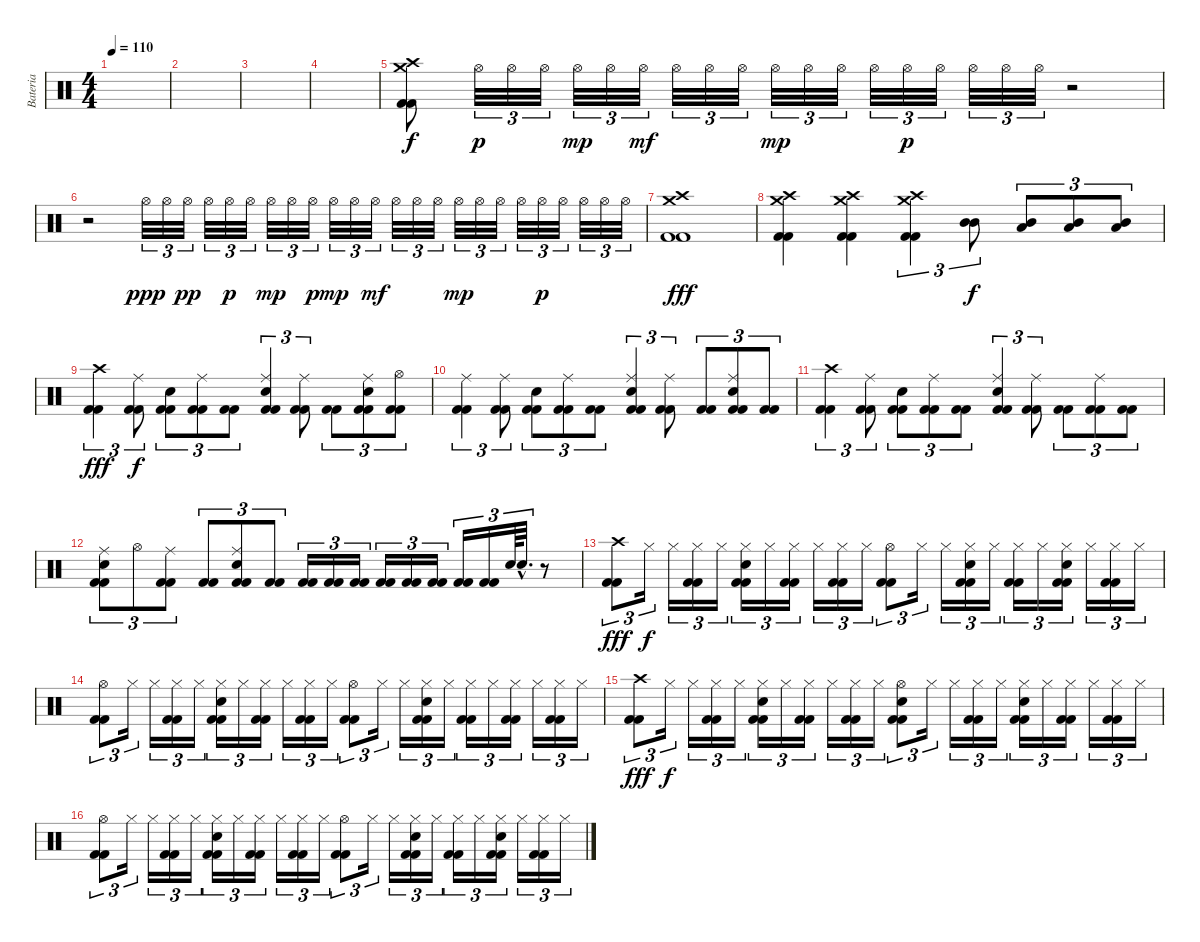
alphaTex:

\track ("Bateria" "Bateria") {instrument percussion}
\staff {score}
\articulation defaults
\ts (4 4)
\tempo 110
\clef neutral
\ks c
|
|
|
|
("Crash high (hit)" "Crash medium (hit)" "Kick (hit) 2" "Kick (hit) 2").8 "Hi-Hat (open)".32{tu (3 2) dy p} "Hi-Hat (open)".32{tu (3 2)} "Hi-Hat (open)".32{tu (3 2)} "Hi-Hat (open)".32{tu (3 2) dy mp} "Hi-Hat (open)".32{tu (3 2)} "Hi-Hat (open)".32{tu (3 2) dy mf} "Hi-Hat (open)".32{tu (3 2)} "Hi-Hat (open)".32{tu (3 2)} "Hi-Hat (open)".32{tu (3 2)} "Hi-Hat (open)".32{tu (3 2) dy mp} "Hi-Hat (open)".32{tu (3 2)} "Hi-Hat (open)".32{tu (3 2)} "Hi-Hat (open)".32{tu (3 2)} "Hi-Hat (open)".32{tu (3 2) dy p} "Hi-Hat (open)".32{tu (3 2)} "Hi-Hat (open)".32{tu (3 2)} "Hi-Hat (open)".32{tu (3 2)} "Hi-Hat (open)".32{tu (3 2)} r.2 |
r.2 "Hi-Hat (open)".32{tu (3 2) dy ppp} "Hi-Hat (open)".32{tu (3 2)} "Hi-Hat (open)".32{tu (3 2) dy pp} "Hi-Hat (open)".32{tu (3 2)} "Hi-Hat (open)".32{tu (3 2) dy p} "Hi-Hat (open)".32{tu (3 2)} "Hi-Hat (open)".32{tu (3 2) dy mp} "Hi-Hat (open)".32{tu (3 2)} "Hi-Hat (open)".32{tu (3 2) dy p} "Hi-Hat (open)".32{tu (3 2) dy mp} "Hi-Hat (open)".32{tu (3 2)} "Hi-Hat (open)".32{tu (3 2) dy mf} "Hi-Hat (open)".32{tu (3 2)} "Hi-Hat (open)".32{tu (3 2)} "Hi-Hat (open)".32{tu (3 2)} "Hi-Hat (open)".32{tu (3 2) dy mp} "Hi-Hat (open)".32{tu (3 2)} "Hi-Hat (open)".32{tu (3 2)} "Hi-Hat (open)".32{tu (3 2)} "Hi-Hat (open)".32{tu (3 2) dy p} "Hi-Hat (open)".32{tu (3 2)} "Hi-Hat (open)".32{tu (3 2)} "Hi-Hat (open)".32{tu (3 2)} "Hi-Hat (open)".32{tu (3 2)} |
("Crash high (hit)" "Crash medium (hit)" "Kick (hit) 2" "Kick (hit) 2").1{dy fff} |
("Crash high (hit)" "Crash medium (hit)" "Kick (hit) 2" "Kick (hit) 2").4 ("Crash high (hit)" "Crash medium (hit)" "Kick (hit) 2" "Kick (hit) 2").4 ("Crash high (hit)" "Crash medium (hit)" "Kick (hit) 2" "Kick (hit) 2").4{tu (3 2)} ("Mid Tom (hit)" "Mid Tom (hit)").8{tu (3 2) dy f} ("Low Tom (hit)" "Mid Tom (hit)").8{tu (3 2)} ("Low Tom (hit)" "Mid Tom (hit)").8{tu (3 2)} ("Low Tom (hit)" "Mid Tom (hit)").8{tu (3 2)} |
("Crash high (hit)" "Kick (hit) 2" "Kick (hit) 2").4{tu (3 2) dy fff} ("Ride (middle)" "Kick (hit) 2" "Kick (hit) 2").8{tu (3 2) dy f} ("Electric Snare (hit)" "Kick (hit) 2" "Kick (hit) 2").8{tu (3 2)} ("Ride (middle)" "Kick (hit) 2" "Kick (hit) 2").8{tu (3 2)} ("Kick (hit) 2" "Kick (hit) 2").8{tu (3 2)} ("Ride (middle)" "Electric Snare (hit)" "Kick (hit) 2" "Kick (hit) 2").4{tu (3 2)} ("Ride (middle)" "Kick (hit) 2" "Kick (hit) 2").8{tu (3 2)} ("Kick (hit) 2" "Kick (hit) 2").8{tu (3 2)} ("Ride (middle)" "Electric Snare (hit)" "Kick (hit) 2" "Kick (hit) 2").8{tu (3 2)} ("Hi-Hat (open)" "Kick (hit) 2" "Kick (hit) 2").8{tu (3 2)} |
("Ride (middle)" "Kick (hit) 2" "Kick (hit) 2").4{tu (3 2)} ("Ride (middle)" "Kick (hit) 2" "Kick (hit) 2").8{tu (3 2)} ("Electric Snare (hit)" "Kick (hit) 2" "Kick (hit) 2").8{tu (3 2)} ("Ride (middle)" "Kick (hit) 2" "Kick (hit) 2").8{tu (3 2)} ("Kick (hit) 2" "Kick (hit) 2").8{tu (3 2)} ("Ride (middle)" "Electric Snare (hit)" "Kick (hit) 2" "Kick (hit) 2").4{tu (3 2)} ("Ride (middle)" "Kick (hit) 2" "Kick (hit) 2").8{tu (3 2)} ("Kick (hit) 2" "Kick (hit) 2").8{tu (3 2)} ("Ride (middle)" "Electric Snare (hit)" "Kick (hit) 2" "Kick (hit) 2").8{tu (3 2)} ("Kick (hit) 2" "Kick (hit) 2").8{tu (3 2)} |
("Crash high (hit)" "Kick (hit) 2" "Kick (hit) 2").4{tu (3 2)} ("Ride (middle)" "Kick (hit) 2" "Kick (hit) 2").8{tu (3 2)} ("Electric Snare (hit)" "Kick (hit) 2" "Kick (hit) 2").8{tu (3 2)} ("Ride (middle)" "Kick (hit) 2" "Kick (hit) 2").8{tu (3 2)} ("Kick (hit) 2" "Kick (hit) 2").8{tu (3 2)} ("Ride (middle)" "Electric Snare (hit)" "Kick (hit) 2" "Kick (hit) 2").4{tu (3 2)} ("Ride (middle)" "Kick (hit) 2" "Kick (hit) 2").8{tu (3 2)} ("Kick (hit) 2" "Kick (hit) 2").8{tu (3 2)} ("Ride (middle)" "Kick (hit) 2" "Kick (hit) 2").8{tu (3 2)} ("Kick (hit) 2" "Kick (hit) 2").8{tu (3 2)} |
("Ride (middle)" "Electric Snare (hit)" "Kick (hit) 2" "Kick (hit) 2").8{tu (3 2)} "Hi-Hat (open)".8{tu (3 2)} ("Ride (middle)" "Kick (hit) 2" "Kick (hit) 2").8{tu (3 2)} ("Kick (hit) 2" "Kick (hit) 2").8{tu (3 2)} ("Ride (middle)" "Electric Snare (hit)" "Kick (hit) 2" "Kick (hit) 2").8{tu (3 2)} ("Kick (hit) 2" "Kick (hit) 2").8{tu (3 2)} ("Kick (hit) 2" "Kick (hit) 2").16{tu (3 2)} ("Kick (hit) 2" "Kick (hit) 2").16{tu (3 2)} ("Kick (hit) 2" "Kick (hit) 2").16{tu (3 2)} ("Kick (hit) 2" "Kick (hit) 2").16{tu (3 2)} ("Kick (hit) 2" "Kick (hit) 2").16{tu (3 2)} ("Kick (hit) 2" "Kick (hit) 2").16{tu (3 2)} ("Kick (hit) 2" "Kick (hit) 2").16{tu (3 2)} ("Kick (hit) 2" "Kick (hit) 2").16{tu (3 2)} "Electric Snare (hit)".64{tu (3 2)} "Electric Snare (hit)"{hac}.32{d tu (3 2)} r.8 |
("Crash high (hit)" "Kick (hit) 2" "Kick (hit) 2").8{tu (3 2) dy fff} "Hi-Hat (closed)".16{tu (3 2) dy f} "Hi-Hat (closed)".16{tu (3 2)} ("Hi-Hat (closed)" "Kick (hit) 2" "Kick (hit) 2").16{tu (3 2)} "Hi-Hat (closed)".16{tu (3 2)} ("Hi-Hat (closed)" "Electric Snare (hit)" "Kick (hit) 2" "Kick (hit) 2").16{tu (3 2)} "Hi-Hat (closed)".16{tu (3 2)} ("Hi-Hat (closed)" "Kick (hit) 2" "Kick (hit) 2").16{tu (3 2)} "Hi-Hat (closed)".16{tu (3 2)} ("Hi-Hat (closed)" "Kick (hit) 2" "Kick (hit) 2").16{tu (3 2)} "Hi-Hat (closed)".16{tu (3 2)} ("Hi-Hat (open)" "Kick (hit) 2" "Kick (hit) 2").8{tu (3 2)} "Hi-Hat (closed)".16{tu (3 2)} "Hi-Hat (closed)".16{tu (3 2)} ("Hi-Hat (closed)" "Electric Snare (hit)" "Kick (hit) 2" "Kick (hit) 2").16{tu (3 2)} "Hi-Hat (closed)".16{tu (3 2)} ("Hi-Hat (closed)" "Kick (hit) 2" "Kick (hit) 2").16{tu (3 2)} "Hi-Hat (closed)".16{tu (3 2)} ("Hi-Hat (closed)" "Electric Snare (hit)" "Kick (hit) 2" "Kick (hit) 2").16{tu (3 2)} "Hi-Hat (closed)".16{tu (3 2)} ("Hi-Hat (closed)" "Kick (hit) 2" "Kick (hit) 2").16{tu (3 2)} "Hi-Hat (closed)".16{tu (3 2)} |
("Hi-Hat (open)" "Kick (hit) 2" "Kick (hit) 2").8{tu (3 2)} "Hi-Hat (closed)".16{tu (3 2)} "Hi-Hat (closed)".16{tu (3 2)} ("Hi-Hat (closed)" "Kick (hit) 2" "Kick (hit) 2").16{tu (3 2)} "Hi-Hat (closed)".16{tu (3 2)} ("Hi-Hat (closed)" "Electric Snare (hit)" "Kick (hit) 2" "Kick (hit) 2").16{tu (3 2)} "Hi-Hat (closed)".16{tu (3 2)} ("Hi-Hat (closed)" "Kick (hit) 2" "Kick (hit) 2").16{tu (3 2)} "Hi-Hat (closed)".16{tu (3 2)} ("Hi-Hat (closed)" "Kick (hit) 2" "Kick (hit) 2").16{tu (3 2)} "Hi-Hat (closed)".16{tu (3 2)} ("Hi-Hat (open)" "Kick (hit) 2" "Kick (hit) 2").8{tu (3 2)} "Hi-Hat (closed)".16{tu (3 2)} "Hi-Hat (closed)".16{tu (3 2)} ("Hi-Hat (closed)" "Electric Snare (hit)" "Kick (hit) 2" "Kick (hit) 2").16{tu (3 2)} "Hi-Hat (closed)".16{tu (3 2)} ("Hi-Hat (closed)" "Kick (hit) 2" "Kick (hit) 2").16{tu (3 2)} "Hi-Hat (closed)".16{tu (3 2)} ("Hi-Hat (closed)" "Kick (hit) 2" "Kick (hit) 2").16{tu (3 2)} "Hi-Hat (closed)".16{tu (3 2)} ("Hi-Hat (closed)" "Kick (hit) 2" "Kick (hit) 2").16{tu (3 2)} "Hi-Hat (closed)".16{tu (3 2)} |
("Crash high (hit)" "Kick (hit) 2" "Kick (hit) 2").8{tu (3 2) dy fff} "Hi-Hat (closed)".16{tu (3 2) dy f} "Hi-Hat (closed)".16{tu (3 2)} ("Hi-Hat (closed)" "Kick (hit) 2" "Kick (hit) 2").16{tu (3 2)} "Hi-Hat (closed)".16{tu (3 2)} ("Hi-Hat (closed)" "Electric Snare (hit)" "Kick (hit) 2" "Kick (hit) 2").16{tu (3 2)} "Hi-Hat (closed)".16{tu (3 2)} ("Hi-Hat (closed)" "Kick (hit) 2" "Kick (hit) 2").16{tu (3 2)} "Hi-Hat (closed)".16{tu (3 2)} ("Hi-Hat (closed)" "Kick (hit) 2" "Kick (hit) 2").16{tu (3 2)} "Hi-Hat (closed)".16{tu (3 2)} ("Hi-Hat (open)" "Electric Snare (hit)" "Kick (hit) 2" "Kick (hit) 2").8{tu (3 2)} "Hi-Hat (closed)".16{tu (3 2)} "Hi-Hat (closed)".16{tu (3 2)} ("Hi-Hat (closed)" "Kick (hit) 2" "Kick (hit) 2").16{tu (3 2)} "Hi-Hat (closed)".16{tu (3 2)} ("Hi-Hat (closed)" "Electric Snare (hit)" "Kick (hit) 2" "Kick (hit) 2").16{tu (3 2)} "Hi-Hat (closed)".16{tu (3 2)} ("Hi-Hat (closed)" "Kick (hit) 2" "Kick (hit) 2").16{tu (3 2)} "Hi-Hat (closed)".16{tu (3 2)} ("Hi-Hat (closed)" "Kick (hit) 2" "Kick (hit) 2").16{tu (3 2)} "Hi-Hat (closed)".16{tu (3 2)} |
("Hi-Hat (open)" "Kick (hit) 2" "Kick (hit) 2").8{tu (3 2)} "Hi-Hat (closed)".16{tu (3 2)} "Hi-Hat (closed)".16{tu (3 2)} ("Hi-Hat (closed)" "Kick (hit) 2" "Kick (hit) 2").16{tu (3 2)} "Hi-Hat (closed)".16{tu (3 2)} ("Hi-Hat (closed)" "Electric Snare (hit)" "Kick (hit) 2" "Kick (hit) 2").16{tu (3 2)} "Hi-Hat (closed)".16{tu (3 2)} ("Hi-Hat (closed)" "Kick (hit) 2" "Kick (hit) 2").16{tu (3 2)} "Hi-Hat (closed)".16{tu (3 2)} ("Hi-Hat (closed)" "Kick (hit) 2" "Kick (hit) 2").16{tu (3 2)} "Hi-Hat (closed)".16{tu (3 2)} ("Hi-Hat (open)" "Kick (hit) 2" "Kick (hit) 2").8{tu (3 2)} "Hi-Hat (closed)".16{tu (3 2)} "Hi-Hat (closed)".16{tu (3 2)} ("Hi-Hat (closed)" "Electric Snare (hit)" "Kick (hit) 2" "Kick (hit) 2").16{tu (3 2)} "Hi-Hat (closed)".16{tu (3 2)} ("Hi-Hat (closed)" "Kick (hit) 2" "Kick (hit) 2").16{tu (3 2)} "Hi-Hat (closed)".16{tu (3 2)} ("Hi-Hat (closed)" "Electric Snare (hit)" "Kick (hit) 2" "Kick (hit) 2").16{tu (3 2)} "Hi-Hat (closed)".16{tu (3 2)} ("Hi-Hat (closed)" "Kick (hit) 2" "Kick (hit) 2").16{tu (3 2)} "Hi-Hat (closed)".16{tu (3 2)}
